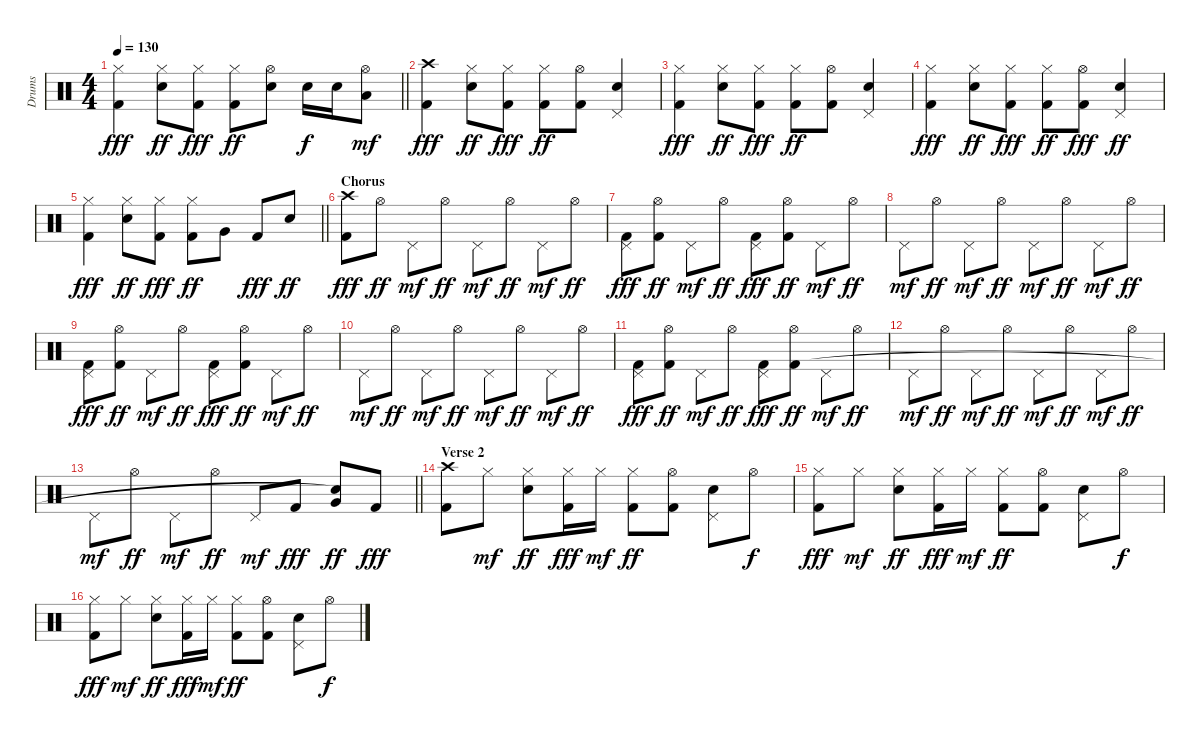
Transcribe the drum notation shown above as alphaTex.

\track ("Drums" "Drums") {instrument percussion}
\staff {score}
\articulation defaults
\ts (4 4)
\tempo 130
\clef neutral
\barLineRight lightlight
\ks c
("Hi-Hat (closed)" "Kick (hit) 2").4{dy fff} ("Hi-Hat (closed)" "Snare (hit) 2").8{dy ff} ("Hi-Hat (closed)" "Kick (hit) 2").8{dy fff} ("Hi-Hat (closed)" "Kick (hit) 2").8{dy ff} ("Hi-Hat (open)" "Snare (hit) 2").8 "Snare (hit) 2".16{dy f} "Snare (hit) 2".16 ("Hi-Hat (open)" "Low Tom (hit)").8{dy mf} |
("Crash high (hit)" "Kick (hit) 2").4{dy fff} ("Hi-Hat (closed)" "Snare (hit) 2").8{dy ff} ("Hi-Hat (closed)" "Kick (hit) 2").8{dy fff} ("Hi-Hat (closed)" "Kick (hit) 2").8{dy ff} ("Hi-Hat (open)" "Kick (hit) 2").8 ("Pedal Hi-Hat (hit)" "Snare (hit) 2").4 |
("Hi-Hat (closed)" "Kick (hit) 2").4{dy fff} ("Hi-Hat (closed)" "Snare (hit) 2").8{dy ff} ("Hi-Hat (closed)" "Kick (hit) 2").8{dy fff} ("Hi-Hat (closed)" "Kick (hit) 2").8{dy ff} ("Hi-Hat (open)" "Kick (hit) 2").8 ("Pedal Hi-Hat (hit)" "Snare (hit) 2").4 |
("Hi-Hat (closed)" "Kick (hit) 2").4{dy fff} ("Hi-Hat (closed)" "Snare (hit) 2").8{dy ff} ("Hi-Hat (closed)" "Kick (hit) 2").8{dy fff} ("Hi-Hat (closed)" "Kick (hit) 2").8{dy ff} ("Hi-Hat (open)" "Kick (hit) 2").8{dy fff} ("Pedal Hi-Hat (hit)" "Snare (hit) 2").4{dy ff} |
\barLineRight lightlight
("Hi-Hat (closed)" "Kick (hit) 2").4{dy fff} ("Hi-Hat (closed)" "Snare (hit) 2").8{dy ff} ("Hi-Hat (closed)" "Kick (hit) 2").8{dy fff} ("Hi-Hat (closed)" "Kick (hit) 2").8{dy ff} "Very Low Tom (hit)".8 "Kick (hit) 2".8{dy fff} "Snare (hit) 2".8{dy ff} |
\section ("" "Chorus")
("Crash high (hit)" "Kick (hit) 2").8{dy fff} "Hi-Hat (open)".8{dy ff} "Pedal Hi-Hat (hit)".8{dy mf} "Hi-Hat (open)".8{dy ff} "Pedal Hi-Hat (hit)".8{dy mf} "Hi-Hat (open)".8{dy ff} "Pedal Hi-Hat (hit)".8{dy mf} "Hi-Hat (open)".8{dy ff} |
("Pedal Hi-Hat (hit)" "Kick (hit) 2").8{dy fff} ("Hi-Hat (open)" "Kick (hit) 2").8{dy ff} "Pedal Hi-Hat (hit)".8{dy mf} "Hi-Hat (open)".8{dy ff} ("Pedal Hi-Hat (hit)" "Kick (hit) 2").8{dy fff} ("Hi-Hat (open)" "Kick (hit) 2").8{dy ff} "Pedal Hi-Hat (hit)".8{dy mf} "Hi-Hat (open)".8{dy ff} |
"Pedal Hi-Hat (hit)".8{dy mf} "Hi-Hat (open)".8{dy ff} "Pedal Hi-Hat (hit)".8{dy mf} "Hi-Hat (open)".8{dy ff} "Pedal Hi-Hat (hit)".8{dy mf} "Hi-Hat (open)".8{dy ff} "Pedal Hi-Hat (hit)".8{dy mf} "Hi-Hat (open)".8{dy ff} |
("Pedal Hi-Hat (hit)" "Kick (hit) 2").8{dy fff} ("Hi-Hat (open)" "Kick (hit) 2").8{dy ff} "Pedal Hi-Hat (hit)".8{dy mf} "Hi-Hat (open)".8{dy ff} ("Pedal Hi-Hat (hit)" "Kick (hit) 2").8{dy fff} ("Hi-Hat (open)" "Kick (hit) 2").8{dy ff} "Pedal Hi-Hat (hit)".8{dy mf} "Hi-Hat (open)".8{dy ff} |
"Pedal Hi-Hat (hit)".8{dy mf} "Hi-Hat (open)".8{dy ff} "Pedal Hi-Hat (hit)".8{dy mf} "Hi-Hat (open)".8{dy ff} "Pedal Hi-Hat (hit)".8{dy mf} "Hi-Hat (open)".8{dy ff} "Pedal Hi-Hat (hit)".8{dy mf} "Hi-Hat (open)".8{dy ff} |
("Pedal Hi-Hat (hit)" "Kick (hit) 2").8{dy fff} ("Hi-Hat (open)" "Kick (hit) 2").8{dy ff} "Pedal Hi-Hat (hit)".8{dy mf} "Hi-Hat (open)".8{dy ff} ("Pedal Hi-Hat (hit)" "Kick (hit) 2").8{dy fff} ("Hi-Hat (open)" "Kick (hit) 2").8{dy ff} "Pedal Hi-Hat (hit)".8{dy mf} "Hi-Hat (open)".8{dy ff} |
"Pedal Hi-Hat (hit)".8{dy mf} "Hi-Hat (open)".8{dy ff} "Pedal Hi-Hat (hit)".8{dy mf} "Hi-Hat (open)".8{dy ff} "Pedal Hi-Hat (hit)".8{dy mf} "Hi-Hat (open)".8{dy ff} "Pedal Hi-Hat (hit)".8{dy mf} "Hi-Hat (open)".8{dy ff} |
\barLineRight lightlight "Pedal Hi-Hat (hit)".8{dy mf} "Hi-Hat (open)".8{dy ff} "Pedal Hi-Hat (hit)".8{dy mf} "Hi-Hat (open)".8{dy ff} "Pedal Hi-Hat (hit)".8{dy mf} "Kick (hit) 2".8{dy fff}
("Very Low Tom (hit)" "Snare (hit)"{t}).8{dy ff} "Kick (hit) 2".8{dy fff} |
\section ("" "Verse 2")
("Crash high (hit)" "Kick (hit) 2").8 "Hi-Hat (closed)".8{dy mf} ("Hi-Hat (closed)" "Snare (hit) 2").8{dy ff} ("Hi-Hat (closed)" "Kick (hit) 2").16{dy fff} "Hi-Hat (closed)".16{dy mf} ("Hi-Hat (closed)" "Kick (hit) 2").8{dy ff} ("Hi-Hat (open)" "Kick (hit) 2").8 ("Pedal Hi-Hat (hit)" "Snare (hit) 2").8 "Hi-Hat (open)".8{dy f} |
("Hi-Hat (closed)" "Kick (hit) 2").8{dy fff} "Hi-Hat (closed)".8{dy mf} ("Hi-Hat (closed)" "Snare (hit) 2").8{dy ff} ("Hi-Hat (closed)" "Kick (hit) 2").16{dy fff} "Hi-Hat (closed)".16{dy mf} ("Hi-Hat (closed)" "Kick (hit) 2").8{dy ff} ("Hi-Hat (open)" "Kick (hit) 2").8 ("Pedal Hi-Hat (hit)" "Snare (hit) 2").8 "Hi-Hat (open)".8{dy f} |
("Hi-Hat (closed)" "Kick (hit) 2").8{dy fff} "Hi-Hat (closed)".8{dy mf} ("Hi-Hat (closed)" "Snare (hit) 2").8{dy ff} ("Hi-Hat (closed)" "Kick (hit) 2").16{dy fff} "Hi-Hat (closed)".16{dy mf} ("Hi-Hat (closed)" "Kick (hit) 2").8{dy ff} ("Hi-Hat (open)" "Kick (hit) 2").8 ("Pedal Hi-Hat (hit)" "Snare (hit) 2").8 "Hi-Hat (open)".8{dy f}
